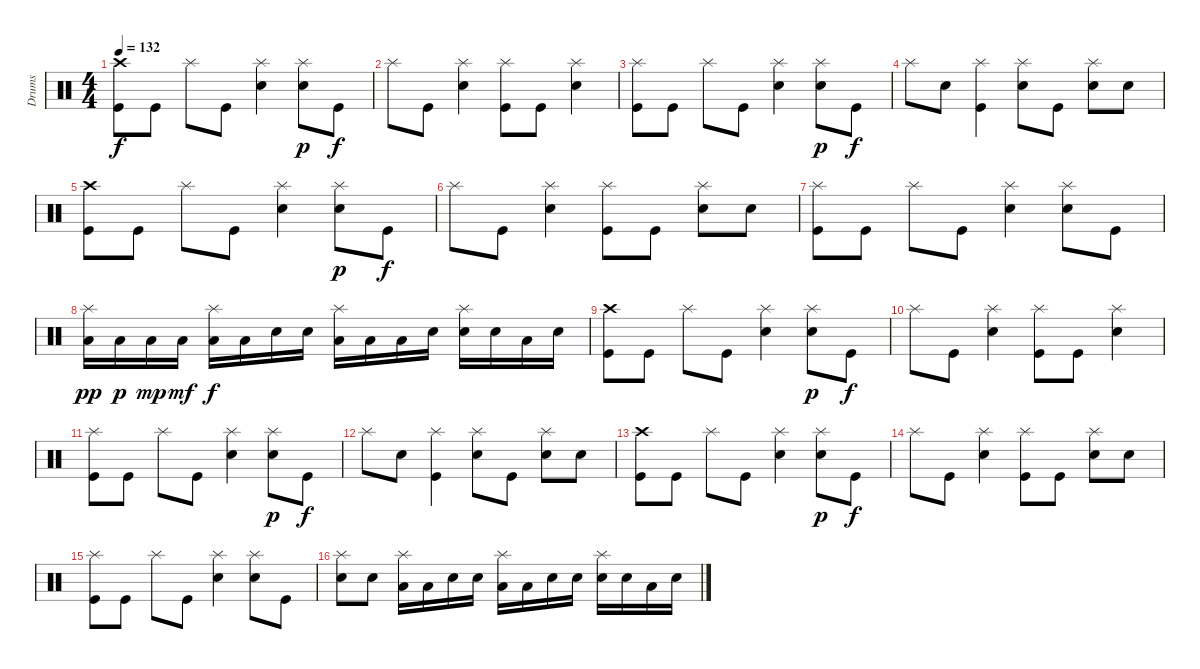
\track ("Drums" "Drums") {instrument percussion}
\staff {score}
\articulation defaults
\ts (4 4)
\tempo 132
\clef neutral
\ks c
("Crash high (hit)" "Kick (hit)").8{dy f} "Kick (hit)".8 "Splash (hit)".8 "Kick (hit)".8 ("Snare (hit) 2" "Splash (hit)").4 ("Snare (hit) 2" "Splash (hit)").8{dy p} "Kick (hit)".8{dy f} |
"Splash (hit)".8 "Kick (hit)".8 ("Snare (hit) 2" "Splash (hit)").4 ("Splash (hit)" "Kick (hit)").8 "Kick (hit)".8 ("Snare (hit) 2" "Splash (hit)").4 |
("Splash (hit)" "Kick (hit)").8 "Kick (hit)".8 "Splash (hit)".8 "Kick (hit)".8 ("Snare (hit) 2" "Splash (hit)").4 ("Snare (hit) 2" "Splash (hit)").8{dy p} "Kick (hit)".8{dy f} |
"Splash (hit)".8 "Snare (hit) 2".8 ("Splash (hit)" "Kick (hit)").4 ("Snare (hit) 2" "Splash (hit)").8 "Kick (hit)".8 ("Snare (hit) 2" "Splash (hit)").8 "Snare (hit) 2".8 |
("Crash high (hit)" "Kick (hit)").8 "Kick (hit)".8 "Splash (hit)".8 "Kick (hit)".8 ("Snare (hit) 2" "Splash (hit)").4 ("Snare (hit) 2" "Splash (hit)").8{dy p} "Kick (hit)".8{dy f} |
"Splash (hit)".8 "Kick (hit)".8 ("Snare (hit) 2" "Splash (hit)").4 ("Splash (hit)" "Kick (hit)").8 "Kick (hit)".8 ("Snare (hit) 2" "Splash (hit)").8 "Snare (hit) 2".8 |
("Splash (hit)" "Kick (hit)").8 "Kick (hit)".8 "Splash (hit)".8 "Kick (hit)".8 ("Snare (hit) 2" "Splash (hit)").4 ("Snare (hit) 2" "Splash (hit)").8 "Kick (hit)".8 |
("Splash (hit)" "Low Tom (hit)").16{dy pp} "Low Tom (hit)".16{dy p} "Low Tom (hit)".16{dy mp} "Low Tom (hit)".16{dy mf} ("Splash (hit)" "Low Tom (hit)").16{dy f} "Low Tom (hit)".16 "Snare (hit) 2".16 "Snare (hit) 2".16 ("Splash (hit)" "Low Tom (hit)").16 "Low Tom (hit)".16 "Low Tom (hit)".16 "Snare (hit) 2".16 ("Splash (hit)" "Snare (hit) 2").16 "Snare (hit) 2".16 "Low Tom (hit)".16 "Snare (hit) 2".16 |
("Crash high (hit)" "Kick (hit)").8 "Kick (hit)".8 "Splash (hit)".8 "Kick (hit)".8 ("Snare (hit) 2" "Splash (hit)").4 ("Snare (hit) 2" "Splash (hit)").8{dy p} "Kick (hit)".8{dy f} |
"Splash (hit)".8 "Kick (hit)".8 ("Snare (hit) 2" "Splash (hit)").4 ("Splash (hit)" "Kick (hit)").8 "Kick (hit)".8 ("Snare (hit) 2" "Splash (hit)").4 |
("Splash (hit)" "Kick (hit)").8 "Kick (hit)".8 "Splash (hit)".8 "Kick (hit)".8 ("Snare (hit) 2" "Splash (hit)").4 ("Snare (hit) 2" "Splash (hit)").8{dy p} "Kick (hit)".8{dy f} |
"Splash (hit)".8 "Snare (hit) 2".8 ("Splash (hit)" "Kick (hit)").4 ("Snare (hit) 2" "Splash (hit)").8 "Kick (hit)".8 ("Snare (hit) 2" "Splash (hit)").8 "Snare (hit) 2".8 |
("Crash high (hit)" "Kick (hit)").8 "Kick (hit)".8 "Splash (hit)".8 "Kick (hit)".8 ("Snare (hit) 2" "Splash (hit)").4 ("Snare (hit) 2" "Splash (hit)").8{dy p} "Kick (hit)".8{dy f} |
"Splash (hit)".8 "Kick (hit)".8 ("Snare (hit) 2" "Splash (hit)").4 ("Splash (hit)" "Kick (hit)").8 "Kick (hit)".8 ("Snare (hit) 2" "Splash (hit)").8 "Snare (hit) 2".8 |
("Splash (hit)" "Kick (hit)").8 "Kick (hit)".8 "Splash (hit)".8 "Kick (hit)".8 ("Snare (hit) 2" "Splash (hit)").4 ("Snare (hit) 2" "Splash (hit)").8 "Kick (hit)".8 |
("Splash (hit)" "Snare (hit) 2").8 "Snare (hit) 2".8 ("Splash (hit)" "Low Tom (hit)").16 "Low Tom (hit)".16 "Snare (hit) 2".16 "Snare (hit) 2".16 ("Splash (hit)" "Low Tom (hit)").16 "Low Tom (hit)".16 "Snare (hit) 2".16 "Snare (hit) 2".16 ("Splash (hit)" "Snare (hit) 2").16 "Snare (hit) 2".16 "Low Tom (hit)".16 "Snare (hit) 2".16
